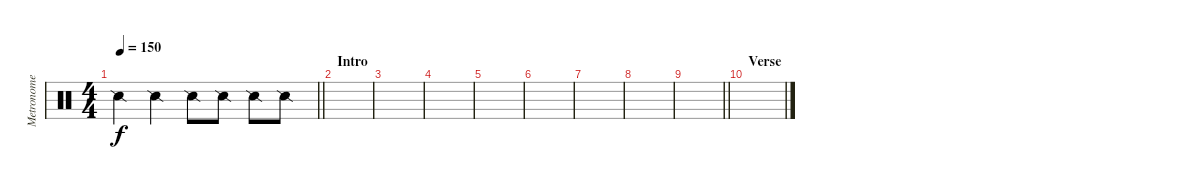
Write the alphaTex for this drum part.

\track ("Metronome" "Metronome") {instrument percussion}
\staff {score}
\articulation defaults
\ts (4 4)
\tempo 150
\clef neutral
\barLineRight lightlight
\ks c "Snare (side stick) 2".4{dy f} "Snare (side stick) 2".4 "Snare (side stick) 2".8 "Snare (side stick) 2".8 "Snare (side stick) 2".8 "Snare (side stick) 2".8
|
\section ("" "Intro")
|
|
|
|
|
|
|
\barLineRight lightlight
|
\section ("" "Verse")
